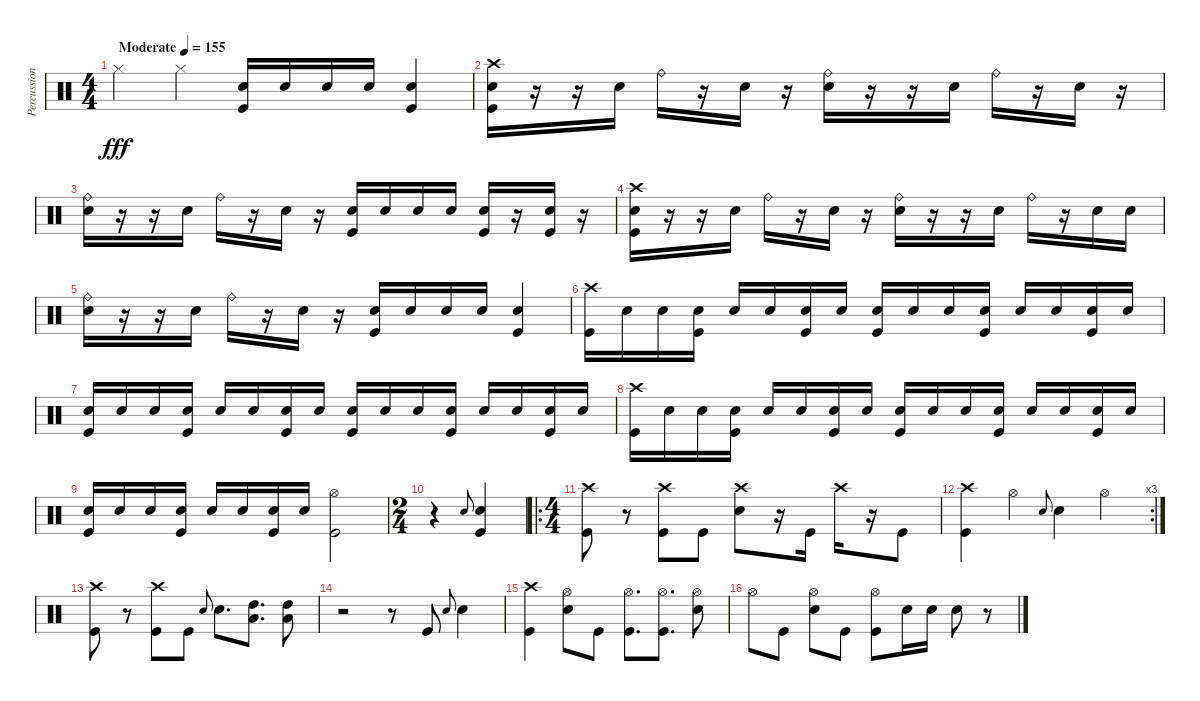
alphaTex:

\track ("Percussion" "Percussion") {instrument percussion}
\staff {score}
\articulation defaults
\ts (4 4)
\tempo (155 "Moderate")
\clef neutral
\ks c "Hi-Hat (closed)".4{dy fff} "Hi-Hat (closed)".4
("Snare (hit) 2" "Kick (hit)").16 "Snare (hit) 2".16 "Snare (hit) 2".16 "Snare (hit) 2".16 ("Snare (hit) 2" "Kick (hit)").4 |
("Crash high (hit)" "Snare (hit) 2" "Kick (hit)").16 r.16 r.16 "Snare (hit) 2".16 "Ride (bell)".16 r.16 "Snare (hit) 2".16 r.16 ("Ride (bell)" "Snare (hit) 2").16 r.16 r.16 "Snare (hit) 2".16 "Ride (bell)".16 r.16 "Snare (hit) 2".16 r.16 |
("Ride (bell)" "Snare (hit) 2").16 r.16 r.16 "Snare (hit) 2".16 "Ride (bell)".16 r.16 "Snare (hit) 2".16 r.16 ("Snare (hit) 2" "Kick (hit)").16 "Snare (hit) 2".16 "Snare (hit) 2".16 "Snare (hit) 2".16 ("Snare (hit) 2" "Kick (hit)").16 r.16 ("Snare (hit) 2" "Kick (hit)").16 r.16 |
("Crash high (hit)" "Snare (hit) 2" "Kick (hit)").16 r.16 r.16 "Snare (hit) 2".16 "Ride (bell)".16 r.16 "Snare (hit) 2".16 r.16 ("Ride (bell)" "Snare (hit) 2").16 r.16 r.16 "Snare (hit) 2".16 "Ride (bell)".16 r.16 "Snare (hit) 2".16 "Snare (hit) 2".16 |
("Ride (bell)" "Snare (hit) 2").16 r.16 r.16 "Snare (hit) 2".16 "Ride (bell)".16 r.16 "Snare (hit) 2".16 r.16 ("Snare (hit) 2" "Kick (hit)").16 "Snare (hit) 2".16 "Snare (hit) 2".16 "Snare (hit) 2".16 ("Snare (hit) 2" "Kick (hit)").4 |
("Crash high (hit)" "Kick (hit)").16 "Snare (hit) 2".16 "Snare (hit) 2".16 ("Snare (hit) 2" "Kick (hit)").16 "Snare (hit) 2".16 "Snare (hit) 2".16 ("Snare (hit) 2" "Kick (hit)").16 "Snare (hit) 2".16 ("Snare (hit) 2" "Kick (hit)").16 "Snare (hit) 2".16 "Snare (hit) 2".16 ("Snare (hit) 2" "Kick (hit)").16 "Snare (hit) 2".16 "Snare (hit) 2".16 ("Snare (hit) 2" "Kick (hit)").16 "Snare (hit) 2".16 |
("Snare (hit) 2" "Kick (hit)").16 "Snare (hit) 2".16 "Snare (hit) 2".16 ("Snare (hit) 2" "Kick (hit)").16 "Snare (hit) 2".16 "Snare (hit) 2".16 ("Snare (hit) 2" "Kick (hit)").16 "Snare (hit) 2".16 ("Snare (hit) 2" "Kick (hit)").16 "Snare (hit) 2".16 "Snare (hit) 2".16 ("Snare (hit) 2" "Kick (hit)").16 "Snare (hit) 2".16 "Snare (hit) 2".16 ("Snare (hit) 2" "Kick (hit)").16 "Snare (hit) 2".16 |
("Crash high (hit)" "Kick (hit)").16 "Snare (hit) 2".16 "Snare (hit) 2".16 ("Snare (hit) 2" "Kick (hit)").16 "Snare (hit) 2".16 "Snare (hit) 2".16 ("Snare (hit) 2" "Kick (hit)").16 "Snare (hit) 2".16 ("Snare (hit) 2" "Kick (hit)").16 "Snare (hit) 2".16 "Snare (hit) 2".16 ("Snare (hit) 2" "Kick (hit)").16 "Snare (hit) 2".16 "Snare (hit) 2".16 ("Snare (hit) 2" "Kick (hit)").16 "Snare (hit) 2".16 |
("Snare (hit) 2" "Kick (hit)").16 "Snare (hit) 2".16 "Snare (hit) 2".16 ("Snare (hit) 2" "Kick (hit)").16 "Snare (hit) 2".16 "Snare (hit) 2".16 ("Snare (hit) 2" "Kick (hit)").16 "Snare (hit) 2".16 ("Hi-Hat (open)" "Kick (hit)").2 |
\ts (2 4)
r.4 "Snare (hit) 2".8{gr onbeat} ("Snare (hit) 2" "Kick (hit)").4 |
\ro
\ts (4 4)
("Crash high (hit)" "Kick (hit)").8 r.8 ("Crash high (hit)" "Kick (hit)").8 "Kick (hit)".8 ("Crash high (hit)" "Snare (hit) 2").8 r.16 "Kick (hit)".16 "Crash high (hit)".16 r.16 "Kick (hit)".8 |
\rc 3
("Crash high (hit)" "Kick (hit)").4 "Hi-Hat (open)".4 "Snare (hit) 2".8{gr onbeat} "Snare (hit) 2".4 "Hi-Hat (open)".4 |
("Crash high (hit)" "Kick (hit)").8 r.8 ("Crash high (hit)" "Kick (hit)").8 "Kick (hit)".8 "Snare (hit) 2".8{gr onbeat} "Snare (hit) 2".8{d} ("Low Tom (hit)" "High Tom (hit)").8{d} ("Low Tom (hit)" "High Tom (hit)").8 |
r.2 r.8 "Kick (hit)".8 "Snare (hit) 2".8{gr onbeat} "Snare (hit) 2".4 |
("Crash high (hit)" "Kick (hit)").4 ("Hi-Hat (open)" "Snare (hit) 2").8 "Kick (hit)".8 ("Hi-Hat (open)" "Kick (hit)").8{d} ("Hi-Hat (open)" "Kick (hit)").8{d} ("Hi-Hat (open)" "Snare (hit) 2").8 |
"Hi-Hat (open)".8 "Kick (hit)".8 ("Hi-Hat (open)" "Snare (hit) 2").8 "Kick (hit)".8 ("Hi-Hat (open)" "Kick (hit)").8 "Snare (hit) 2".16 "Snare (hit) 2".16 "Snare (hit) 2".8 r.8
